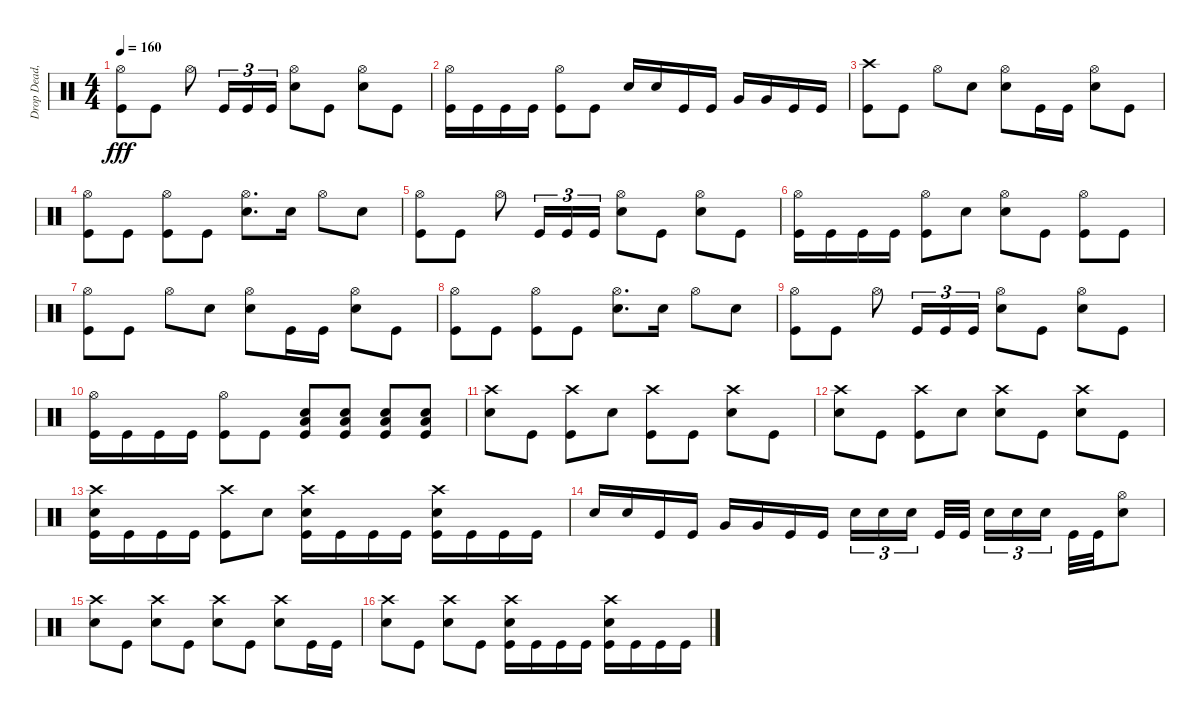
\track ("Drop Dead, Johnny" "Drop Dead,") {instrument percussion}
\staff {score}
\articulation defaults
\ts (4 4)
\tempo 160
\clef neutral
\ks c
("Hi-Hat (open)" "Kick (hit)").8{dy fff} "Kick (hit)".8 "Hi-Hat (open)".8 "Kick (hit)".16{tu (3 2)} "Kick (hit)".16{tu (3 2)} "Kick (hit)".16{tu (3 2)} ("Hi-Hat (open)" "Electric Snare (hit)").8 "Kick (hit)".8 ("Hi-Hat (open)" "Electric Snare (hit)").8 "Kick (hit)".8 |
("Hi-Hat (open)" "Kick (hit)").16 "Kick (hit)".16 "Kick (hit)".16 "Kick (hit)".16 ("Hi-Hat (open)" "Kick (hit)").8 "Kick (hit)".8 "Electric Snare (hit)".16 "Electric Snare (hit)".16 "Kick (hit)".16 "Kick (hit)".16 "Very Low Tom (hit)".16 "Very Low Tom (hit)".16 "Kick (hit)".16 "Kick (hit)".16 |
("Crash high (hit)" "Kick (hit)").8 "Kick (hit)".8 "Hi-Hat (open)".8 "Electric Snare (hit)".8 ("Hi-Hat (open)" "Electric Snare (hit)").8 "Kick (hit)".16 "Kick (hit)".16 ("Hi-Hat (open)" "Electric Snare (hit)").8 "Kick (hit)".8 |
("Hi-Hat (open)" "Kick (hit)").8 "Kick (hit)".8 ("Hi-Hat (open)" "Kick (hit)").8 "Kick (hit)".8 ("Hi-Hat (open)" "Electric Snare (hit)").8{d} "Electric Snare (hit)".16 "Hi-Hat (open)".8 "Electric Snare (hit)".8 |
("Hi-Hat (open)" "Kick (hit)").8 "Kick (hit)".8 "Hi-Hat (open)".8 "Kick (hit)".16{tu (3 2)} "Kick (hit)".16{tu (3 2)} "Kick (hit)".16{tu (3 2)} ("Hi-Hat (open)" "Electric Snare (hit)").8 "Kick (hit)".8 ("Hi-Hat (open)" "Electric Snare (hit)").8 "Kick (hit)".8 |
("Hi-Hat (open)" "Kick (hit)").16 "Kick (hit)".16 "Kick (hit)".16 "Kick (hit)".16 ("Hi-Hat (open)" "Kick (hit)").8 "Electric Snare (hit)".8 ("Hi-Hat (open)" "Electric Snare (hit)").8 "Kick (hit)".8 ("Hi-Hat (open)" "Kick (hit)").8 "Kick (hit)".8 |
("Hi-Hat (open)" "Kick (hit)").8 "Kick (hit)".8 "Hi-Hat (open)".8 "Electric Snare (hit)".8 ("Hi-Hat (open)" "Electric Snare (hit)").8 "Kick (hit)".16 "Kick (hit)".16 ("Hi-Hat (open)" "Electric Snare (hit)").8 "Kick (hit)".8 |
("Hi-Hat (open)" "Kick (hit)").8 "Kick (hit)".8 ("Hi-Hat (open)" "Kick (hit)").8 "Kick (hit)".8 ("Hi-Hat (open)" "Electric Snare (hit)").8{d} "Electric Snare (hit)".16 "Hi-Hat (open)".8 "Electric Snare (hit)".8 |
("Hi-Hat (open)" "Kick (hit)").8 "Kick (hit)".8 "Hi-Hat (open)".8 "Kick (hit)".16{tu (3 2)} "Kick (hit)".16{tu (3 2)} "Kick (hit)".16{tu (3 2)} ("Hi-Hat (open)" "Electric Snare (hit)").8 "Kick (hit)".8 ("Hi-Hat (open)" "Electric Snare (hit)").8 "Kick (hit)".8 |
("Hi-Hat (open)" "Kick (hit)").16 "Kick (hit)".16 "Kick (hit)".16 "Kick (hit)".16 ("Hi-Hat (open)" "Kick (hit)").8 "Kick (hit)".8 ("Low Floor Tom (hit)" "Electric Snare (hit)" "Kick (hit)").8 ("Low Floor Tom (hit)" "Electric Snare (hit)" "Kick (hit)").8 ("Low Floor Tom (hit)" "Electric Snare (hit)" "Kick (hit)").8 ("Low Floor Tom (hit)" "Electric Snare (hit)" "Kick (hit)").8 |
("Crash high (hit)" "Electric Snare (hit)").8 "Kick (hit)".8 ("Crash high (hit)" "Kick (hit)").8 "Electric Snare (hit)".8 ("Crash high (hit)" "Kick (hit)").8 "Kick (hit)".8 ("Crash high (hit)" "Electric Snare (hit)").8 "Kick (hit)".8 |
("Crash high (hit)" "Electric Snare (hit)").8 "Kick (hit)".8 ("Crash high (hit)" "Kick (hit)").8 "Electric Snare (hit)".8 ("Crash high (hit)" "Electric Snare (hit)").8 "Kick (hit)".8 ("Crash high (hit)" "Electric Snare (hit)").8 "Kick (hit)".8 |
("Crash high (hit)" "Electric Snare (hit)" "Kick (hit)").16 "Kick (hit)".16 "Kick (hit)".16 "Kick (hit)".16 ("Crash high (hit)" "Kick (hit)").8 "Electric Snare (hit)".8 ("Crash high (hit)" "Electric Snare (hit)" "Kick (hit)").16 "Kick (hit)".16 "Kick (hit)".16 "Kick (hit)".16 ("Crash high (hit)" "Electric Snare (hit)" "Kick (hit)").16 "Kick (hit)".16 "Kick (hit)".16 "Kick (hit)".16 |
"Electric Snare (hit)".16 "Electric Snare (hit)".16 "Kick (hit)".16 "Kick (hit)".16 "Very Low Tom (hit)".16 "Very Low Tom (hit)".16 "Kick (hit)".16 "Kick (hit)".16 "Electric Snare (hit)".16{tu (3 2)} "Electric Snare (hit)".16{tu (3 2)} "Electric Snare (hit)".16{tu (3 2) beam splitsecondary} "Kick (hit)".32 "Kick (hit)".32{beam splitsecondary} "Electric Snare (hit)".16{tu (3 2)} "Electric Snare (hit)".16{tu (3 2)} "Electric Snare (hit)".16{tu (3 2) beam splitsecondary} "Kick (hit)".32 "Kick (hit)".32 ("Hi-Hat (open)" "Electric Snare (hit)").8 |
("Crash high (hit)" "Electric Snare (hit)").8 "Kick (hit)".8 ("Crash high (hit)" "Electric Snare (hit)").8 "Kick (hit)".8 ("Crash high (hit)" "Electric Snare (hit)").8 "Kick (hit)".8 ("Crash high (hit)" "Electric Snare (hit)").8 "Kick (hit)".16 "Kick (hit)".16 |
("Crash high (hit)" "Electric Snare (hit)").8 "Kick (hit)".8 ("Crash high (hit)" "Electric Snare (hit)").8 "Kick (hit)".8 ("Crash high (hit)" "Electric Snare (hit)" "Kick (hit)").16 "Kick (hit)".16 "Kick (hit)".16 "Kick (hit)".16 ("Crash high (hit)" "Electric Snare (hit)" "Kick (hit)").16 "Kick (hit)".16 "Kick (hit)".16 "Kick (hit)".16
